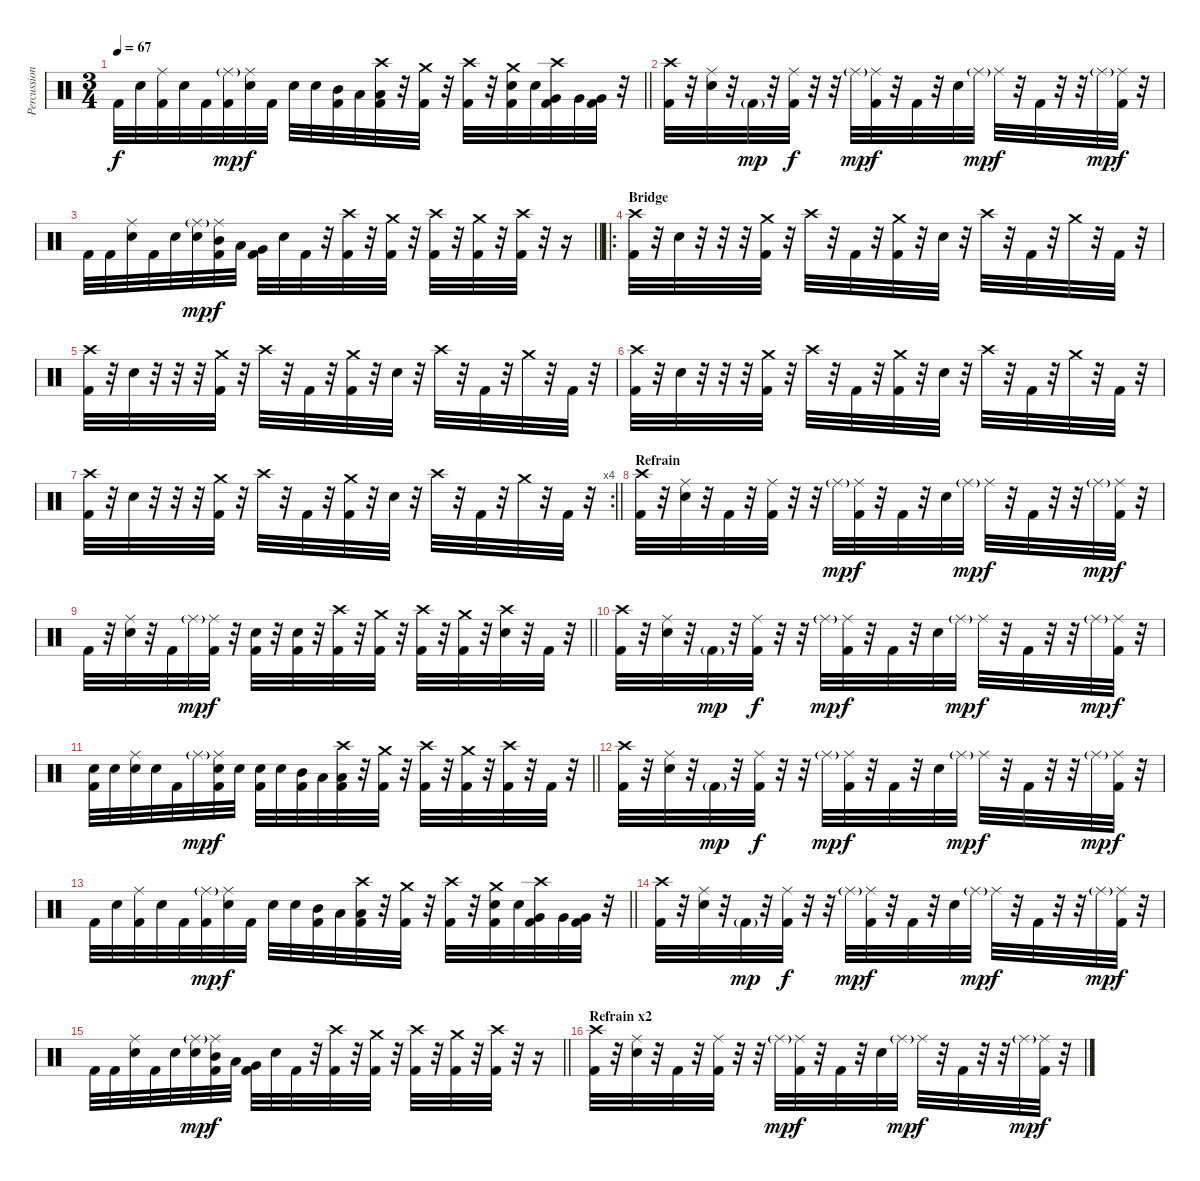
\track ("Percussions" "Percussion") {instrument percussion}
\staff {score}
\articulation defaults
\ts (3 4)
\tempo 67
\clef neutral
\barLineRight lightlight
\ks c "Kick (hit) 2".32{dy f} "Electric Snare (hit)".32
("Ride (middle)" "Kick (hit) 2").32 "Electric Snare (hit)".32 "Kick (hit) 2".32 ("Ride (middle)"{g} "Kick (hit) 2").32{dy mp} ("Ride (middle)" "Electric Snare (hit)").32{dy f} "Kick (hit) 2".32 "Electric Snare (hit)".32 "Electric Snare (hit)".32 ("Mid Tom (hit)" "Kick (hit) 2").32 "Low Tom (hit)".32 ("Crash high (hit)" "Low Floor Tom (hit)" "Kick (hit) 2").32 r.32 ("Crash medium (hit)" "Kick (hit) 2").32 r.32 ("Crash high (hit)" "Kick (hit) 2").32 r.32 ("Crash medium (hit)" "Electric Snare (hit)" "Kick (hit) 2").32 "Electric Snare (hit)".32 ("Crash high (hit)" "Very Low Tom (hit)" "Kick (hit) 2").32 "Very Low Tom (hit)".32 ("Very Low Tom (hit)" "Kick (hit) 2").32 r.32 |
("Crash high (hit)" "Kick (hit) 2").32 r.32 ("Ride (middle)" "Electric Snare (hit)").32 r.32 "Kick (hit) 2"{g}.32{dy mp} r.32 ("Ride (middle)" "Kick (hit) 2").32{dy f} r.32 r.32 "Ride (middle)"{g}.32{dy mp} ("Ride (middle)" "Kick (hit) 2").32{dy f} r.32 "Kick (hit) 2".32 r.32 "Electric Snare (hit)".32 "Ride (middle)"{g}.32{dy mp} "Ride (middle)".32{dy f} r.32 "Kick (hit) 2".32 r.32 r.32 "Ride (middle)"{g}.32{dy mp} ("Ride (middle)" "Kick (hit) 2").32{dy f} r.32 |
\barLineRight lightlight "Kick (hit) 2".32 "Kick (hit) 2".32
("Ride (middle)" "Electric Snare (hit)").32 "Kick (hit) 2".32 "Electric Snare (hit)".32 ("Ride (middle)"{g} "Electric Snare (hit)").32{dy mp} ("Ride (middle)" "Mid Tom (hit)" "Kick (hit) 2").32{dy f} "Low Tom (hit)".32 ("Very Low Tom (hit)" "Kick (hit) 2").32 "Electric Snare (hit)".32 "Kick (hit) 2".32 r.32 ("Crash high (hit)" "Kick (hit) 2").32 r.32 ("Crash medium (hit)" "Kick (hit) 2").32 r.32 ("Crash high (hit)" "Kick (hit) 2").32 r.32 ("Crash medium (hit)" "Kick (hit) 2").32 r.32 ("Crash high (hit)" "Kick (hit) 2").32 r.32 r.16 |
\ro
\section ("" "Bridge")
("Crash high (hit)" "Kick (hit) 2").32 r.32 "Electric Snare (hit)".32 r.32 r.32 r.32 ("Crash medium (hit)" "Kick (hit) 2").32 r.32 "Crash high (hit)".32 r.32 "Kick (hit) 2".32 r.32 ("Crash medium (hit)" "Kick (hit) 2").32 r.32 "Electric Snare (hit)".32 r.32 "Crash high (hit)".32 r.32 "Kick (hit) 2".32 r.32 "Crash medium (hit)".32 r.32 "Kick (hit) 2".32 r.32 |
("Crash high (hit)" "Kick (hit) 2").32 r.32 "Electric Snare (hit)".32 r.32 r.32 r.32 ("Crash medium (hit)" "Kick (hit) 2").32 r.32 "Crash high (hit)".32 r.32 "Kick (hit) 2".32 r.32 ("Crash medium (hit)" "Kick (hit) 2").32 r.32 "Electric Snare (hit)".32 r.32 "Crash high (hit)".32 r.32 "Kick (hit) 2".32 r.32 "Crash medium (hit)".32 r.32 "Kick (hit) 2".32 r.32 |
("Crash high (hit)" "Kick (hit) 2").32 r.32 "Electric Snare (hit)".32 r.32 r.32 r.32 ("Crash medium (hit)" "Kick (hit) 2").32 r.32 "Crash high (hit)".32 r.32 "Kick (hit) 2".32 r.32 ("Crash medium (hit)" "Kick (hit) 2").32 r.32 "Electric Snare (hit)".32 r.32 "Crash high (hit)".32 r.32 "Kick (hit) 2".32 r.32 "Crash medium (hit)".32 r.32 "Kick (hit) 2".32 r.32 |
\rc 4
\barLineRight lightlight
("Crash high (hit)" "Kick (hit) 2").32 r.32 "Electric Snare (hit)".32 r.32 r.32 r.32 ("Crash medium (hit)" "Kick (hit) 2").32 r.32 "Crash high (hit)".32 r.32 "Kick (hit) 2".32 r.32 ("Crash medium (hit)" "Kick (hit) 2").32 r.32 "Electric Snare (hit)".32 r.32 "Crash high (hit)".32 r.32 "Kick (hit) 2".32 r.32 "Crash medium (hit)".32 r.32 "Kick (hit) 2".32 r.32 |
\section ("" "Refrain")
("Crash high (hit)" "Kick (hit) 2").32 r.32 ("Ride (middle)" "Electric Snare (hit)").32 r.32 "Kick (hit) 2".32 r.32 ("Ride (middle)" "Kick (hit) 2").32 r.32 r.32 "Ride (middle)"{g}.32{dy mp} ("Ride (middle)" "Kick (hit) 2").32{dy f} r.32 "Kick (hit) 2".32 r.32 "Electric Snare (hit)".32 "Ride (middle)"{g}.32{dy mp} "Ride (middle)".32{dy f} r.32 "Kick (hit) 2".32 r.32 r.32 "Ride (middle)"{g}.32{dy mp} ("Ride (middle)" "Kick (hit) 2").32{dy f} r.32 |
\barLineRight lightlight "Kick (hit) 2".32
r.32 ("Ride (middle)" "Electric Snare (hit)").32 r.32 "Kick (hit) 2".32 "Ride (middle)"{g}.32{dy mp} ("Ride (middle)" "Kick (hit) 2").32{dy f} r.32 ("Electric Snare (hit)" "Kick (hit) 2").32 r.32 ("Electric Snare (hit)" "Kick (hit) 2").32 r.32 ("Crash high (hit)" "Kick (hit) 2").32 r.32 ("Crash medium (hit)" "Kick (hit) 2").32 r.32 ("Crash high (hit)" "Kick (hit) 2").32 r.32 ("Crash medium (hit)" "Kick (hit) 2").32 r.32 ("Crash high (hit)" "Electric Snare (hit)").32 r.32 "Kick (hit) 2".32 r.32 |
("Crash high (hit)" "Kick (hit) 2").32 r.32 ("Ride (middle)" "Electric Snare (hit)").32 r.32 "Kick (hit) 2"{g}.32{dy mp} r.32 ("Ride (middle)" "Kick (hit) 2").32{dy f} r.32 r.32 "Ride (middle)"{g}.32{dy mp} ("Ride (middle)" "Kick (hit) 2").32{dy f} r.32 "Kick (hit) 2".32 r.32 "Electric Snare (hit)".32 "Ride (middle)"{g}.32{dy mp} "Ride (middle)".32{dy f} r.32 "Kick (hit) 2".32 r.32 r.32 "Ride (middle)"{g}.32{dy mp} ("Ride (middle)" "Kick (hit) 2").32{dy f} r.32 |
\barLineRight lightlight
("Electric Snare (hit)" "Kick (hit) 2").32 "Electric Snare (hit)".32 ("Ride (middle)" "Electric Snare (hit)").32 "Electric Snare (hit)".32 "Kick (hit) 2".32 "Ride (middle)"{g}.32{dy mp} ("Ride (middle)" "Electric Snare (hit)" "Kick (hit) 2").32{dy f} "Electric Snare (hit)".32 ("Electric Snare (hit)" "Kick (hit) 2").32 "Electric Snare (hit)".32 ("Mid Tom (hit)" "Kick (hit) 2").32 "Low Tom (hit)".32 ("Crash high (hit)" "Low Floor Tom (hit)" "Kick (hit) 2").32 r.32 ("Crash medium (hit)" "Kick (hit) 2").32 r.32 ("Crash high (hit)" "Kick (hit) 2").32 r.32 ("Crash medium (hit)" "Kick (hit) 2").32 r.32 ("Crash high (hit)" "Kick (hit) 2").32 r.32 "Kick (hit) 2".32 r.32 |
("Crash high (hit)" "Kick (hit) 2").32 r.32 ("Ride (middle)" "Electric Snare (hit)").32 r.32 "Kick (hit) 2"{g}.32{dy mp} r.32 ("Ride (middle)" "Kick (hit) 2").32{dy f} r.32 r.32 "Ride (middle)"{g}.32{dy mp} ("Ride (middle)" "Kick (hit) 2").32{dy f} r.32 "Kick (hit) 2".32 r.32 "Electric Snare (hit)".32 "Ride (middle)"{g}.32{dy mp} "Ride (middle)".32{dy f} r.32 "Kick (hit) 2".32 r.32 r.32 "Ride (middle)"{g}.32{dy mp} ("Ride (middle)" "Kick (hit) 2").32{dy f} r.32 |
\barLineRight lightlight "Kick (hit) 2".32 "Electric Snare (hit)".32
("Ride (middle)" "Kick (hit) 2").32 "Electric Snare (hit)".32 "Kick (hit) 2".32 ("Ride (middle)"{g} "Kick (hit) 2").32{dy mp} ("Ride (middle)" "Electric Snare (hit)").32{dy f} "Kick (hit) 2".32 "Electric Snare (hit)".32 "Electric Snare (hit)".32 ("Mid Tom (hit)" "Kick (hit) 2").32 "Low Tom (hit)".32 ("Crash high (hit)" "Low Floor Tom (hit)" "Kick (hit) 2").32 r.32 ("Crash medium (hit)" "Kick (hit) 2").32 r.32 ("Crash high (hit)" "Kick (hit) 2").32 r.32 ("Crash medium (hit)" "Electric Snare (hit)" "Kick (hit) 2").32 "Electric Snare (hit)".32 ("Crash high (hit)" "Very Low Tom (hit)" "Kick (hit) 2").32 "Very Low Tom (hit)".32 ("Very Low Tom (hit)" "Kick (hit) 2").32 r.32 |
("Crash high (hit)" "Kick (hit) 2").32 r.32 ("Ride (middle)" "Electric Snare (hit)").32 r.32 "Kick (hit) 2"{g}.32{dy mp} r.32 ("Ride (middle)" "Kick (hit) 2").32{dy f} r.32 r.32 "Ride (middle)"{g}.32{dy mp} ("Ride (middle)" "Kick (hit) 2").32{dy f} r.32 "Kick (hit) 2".32 r.32 "Electric Snare (hit)".32 "Ride (middle)"{g}.32{dy mp} "Ride (middle)".32{dy f} r.32 "Kick (hit) 2".32 r.32 r.32 "Ride (middle)"{g}.32{dy mp} ("Ride (middle)" "Kick (hit) 2").32{dy f} r.32 |
\barLineRight lightlight "Kick (hit) 2".32 "Kick (hit) 2".32
("Ride (middle)" "Electric Snare (hit)").32 "Kick (hit) 2".32 "Electric Snare (hit)".32 ("Ride (middle)"{g} "Electric Snare (hit)").32{dy mp} ("Ride (middle)" "Mid Tom (hit)" "Kick (hit) 2").32{dy f} "Low Tom (hit)".32 ("Very Low Tom (hit)" "Kick (hit) 2").32 "Electric Snare (hit)".32 "Kick (hit) 2".32 r.32 ("Crash high (hit)" "Kick (hit) 2").32 r.32 ("Crash medium (hit)" "Kick (hit) 2").32 r.32 ("Crash high (hit)" "Kick (hit) 2").32 r.32 ("Crash medium (hit)" "Kick (hit) 2").32 r.32 ("Crash high (hit)" "Kick (hit) 2").32 r.32 r.16 |
\section ("" "Refrain x2")
("Crash high (hit)" "Kick (hit) 2").32 r.32 ("Ride (middle)" "Electric Snare (hit)").32 r.32 "Kick (hit) 2".32 r.32 ("Ride (middle)" "Kick (hit) 2").32 r.32 r.32 "Ride (middle)"{g}.32{dy mp} ("Ride (middle)" "Kick (hit) 2").32{dy f} r.32 "Kick (hit) 2".32 r.32 "Electric Snare (hit)".32 "Ride (middle)"{g}.32{dy mp} "Ride (middle)".32{dy f} r.32 "Kick (hit) 2".32 r.32 r.32 "Ride (middle)"{g}.32{dy mp} ("Ride (middle)" "Kick (hit) 2").32{dy f} r.32
